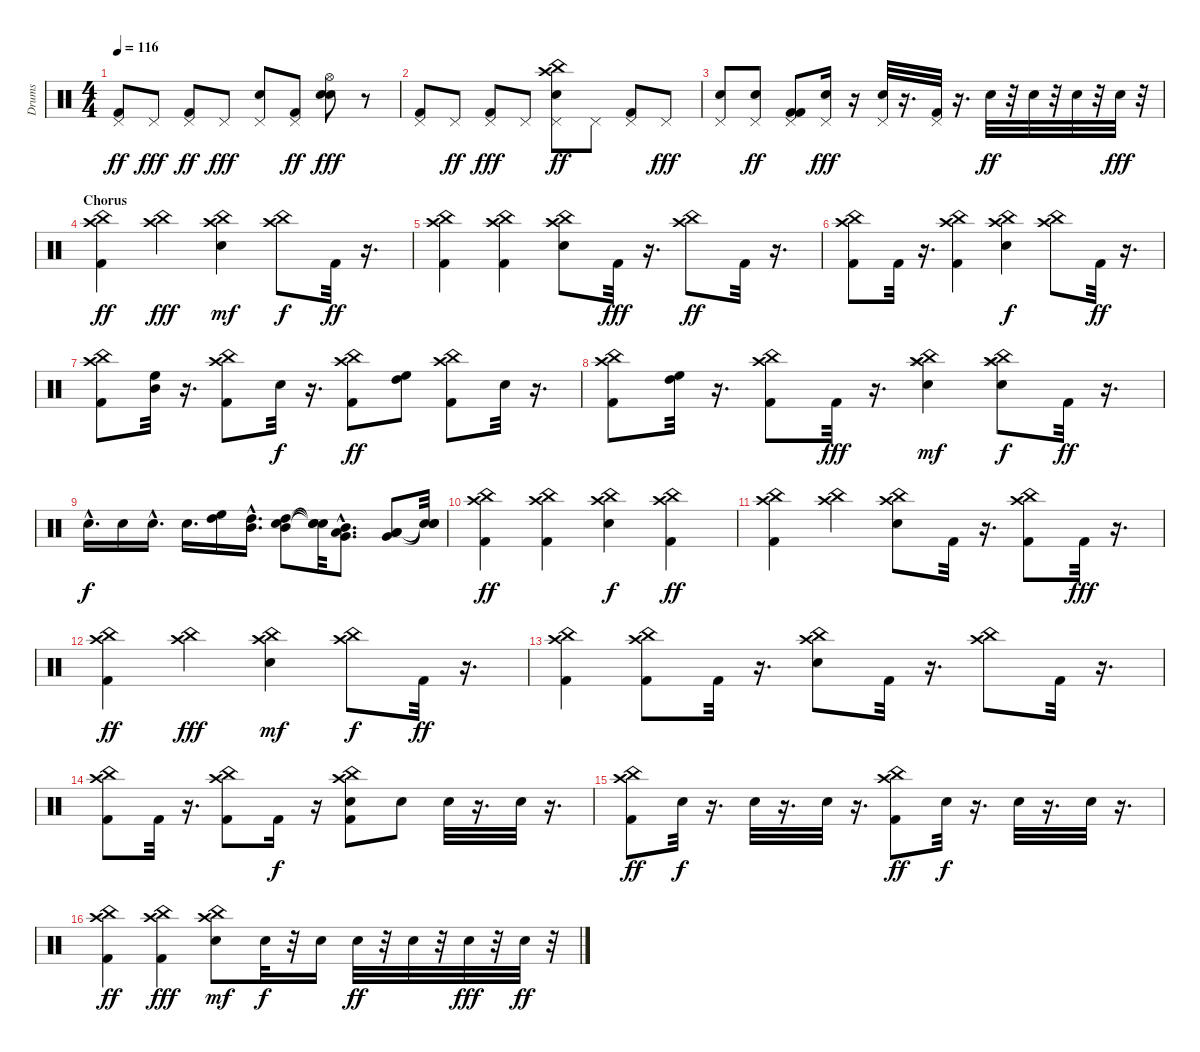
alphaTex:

\track ("Drums" "Drums") {instrument percussion}
\staff {score}
\articulation defaults
\ts (4 4)
\tempo 116
\clef neutral
\ks c
("Kick (hit) 2" "Pedal Hi-Hat (hit)").8{dy ff} "Pedal Hi-Hat (hit)".8{dy fff} ("Kick (hit) 2" "Pedal Hi-Hat (hit)").8{dy ff} "Pedal Hi-Hat (hit)".8{dy fff} ("Snare (hit) 2" "Pedal Hi-Hat (hit)").8 ("Kick (hit) 2" "Pedal Hi-Hat (hit)").8{dy ff} ("Snare (hit) 2" "Snare (hit) 2" "Hi-Hat (open)").8{dy fff} r.8 |
("Kick (hit) 2" "Pedal Hi-Hat (hit)").8 "Pedal Hi-Hat (hit)".8{dy ff} ("Kick (hit) 2" "Pedal Hi-Hat (hit)").8{dy fff} "Pedal Hi-Hat (hit)".8 ("China (hit)" "Crash high (hit)" "Snare (hit) 2" "Pedal Hi-Hat (hit)").8{dy ff} "Pedal Hi-Hat (hit)".8 ("Kick (hit) 2" "Pedal Hi-Hat (hit)").8 "Pedal Hi-Hat (hit)".8{dy fff} |
("Snare (hit) 2" "Pedal Hi-Hat (hit)").8 ("Snare (hit) 2" "Pedal Hi-Hat (hit)").8{dy ff} ("Kick (hit) 2" "Kick (hit) 2" "Pedal Hi-Hat (hit)").8 ("Snare (hit) 2" "Pedal Hi-Hat (hit)").16{dy fff} r.16 ("Snare (hit) 2" "Pedal Hi-Hat (hit)").32 r.16{d} ("Kick (hit) 2" "Pedal Hi-Hat (hit)").32 r.16{d} "Snare (hit) 2".32{dy ff} r.32 "Snare (hit) 2".32 r.32 "Snare (hit) 2".32 r.32 "Snare (hit) 2".32{dy fff} r.32 |
\section ("" "Chorus")
("China (hit)" "Kick (hit) 2" "Crash high (hit)").4{dy ff} ("China (hit)" "Crash high (hit)").4{dy fff} ("Snare (hit) 2" "Crash high (hit)" "China (hit)").4{dy mf} ("Crash high (hit)" "China (hit)").8{dy f} "Kick (hit) 2".32{dy ff} r.16{d} |
("Kick (hit) 2" "Crash high (hit)" "China (hit)").4 ("Kick (hit) 2" "Crash high (hit)" "China (hit)").4 ("Crash high (hit)" "China (hit)" "Snare (hit) 2").8 "Kick (hit) 2".32{dy fff} r.16{d} ("Crash high (hit)" "China (hit)").8{dy ff} "Kick (hit) 2".32 r.16{d} |
("Kick (hit) 2" "China (hit)" "Crash high (hit)").8 "Kick (hit) 2".32 r.16{d} ("Kick (hit) 2" "Crash high (hit)" "China (hit)").4 ("Snare (hit) 2" "China (hit)" "Crash high (hit)").4{dy f} ("Crash high (hit)" "China (hit)").8 "Kick (hit) 2".32{dy ff} r.16{d} |
("Kick (hit) 2" "Crash high (hit)" "China (hit)").8 ("High Floor Tom (hit)" "Mid Tom (hit)").32 r.16{d} ("Kick (hit) 2" "Crash high (hit)" "China (hit)").8 "Snare (hit) 2".32{dy f} r.16{d} ("Kick (hit) 2" "Crash high (hit)" "China (hit)").8{dy ff} ("High Floor Tom (hit)" "High Tom (hit)").8 ("Kick (hit) 2" "China (hit)" "Crash high (hit)").8 "Snare (hit) 2".32 r.16{d} |
("China (hit)" "Kick (hit) 2" "Crash high (hit)").8 ("High Tom (hit)" "High Floor Tom (hit)").32 r.16{d} ("China (hit)" "Crash high (hit)" "Kick (hit) 2").8 "Kick (hit) 2".32{dy fff} r.16{d} ("Splash (hit)" "Snare (hit) 2" "Crash high (hit)" "China (hit)").4{dy mf} ("Splash (hit)" "Snare (hit) 2" "Crash high (hit)" "China (hit)").8{dy f} "Kick (hit) 2".32{dy ff} r.16{d} |
"Snare (hit) 2"{hac}.16{d dy f} "Snare (hit) 2".16 "Snare (hit) 2"{hac}.16{d} "Snare (hit) 2".16{d} ("High Floor Tom (hit)" "High Tom (hit)").16 ("High Tom (hit)"{hac} "Mid Tom (hit)"{hac}).16{d} ("Mid Tom (hit)" "High Tom (hit)" "Snare (hit) 2").8 ("Snare (hit)"{t} "Snare (hit)"{t} "Snare (hit)"{t}).32 ("Very Low Tom (hit)"{hac} "Low Tom (hit)"{hac} "Mid Tom (hit)").8{d} ("Low Floor Tom (hit)" "Very Low Tom (hit)" "Low Tom (hit)").8 ("Snare (hit)"{t} "Snare (hit)"{t} "Snare (hit)"{t}).32 |
("Kick (hit) 2" "China (hit)" "Crash high (hit)").4{dy ff} ("Kick (hit) 2" "Crash high (hit)" "China (hit)").4 ("Snare (hit) 2" "China (hit)" "Crash high (hit)").4{dy f} ("Kick (hit) 2" "Crash high (hit)" "China (hit)").4{dy ff} |
("Kick (hit) 2" "Crash high (hit)" "China (hit)").4 ("Crash high (hit)" "China (hit)").4 ("Crash high (hit)" "China (hit)" "Snare (hit) 2").8 "Kick (hit) 2".32 r.16{d} ("Kick (hit) 2" "China (hit)" "Crash high (hit)").8 "Kick (hit) 2".32{dy fff} r.16{d} |
("China (hit)" "Kick (hit) 2" "Crash high (hit)").4{dy ff} ("China (hit)" "Crash high (hit)").4{dy fff} ("Snare (hit) 2" "Crash high (hit)" "China (hit)").4{dy mf} ("Crash high (hit)" "China (hit)").8{dy f} "Kick (hit) 2".32{dy ff} r.16{d} |
("Kick (hit) 2" "Crash high (hit)" "China (hit)").4 ("Kick (hit) 2" "Crash high (hit)" "China (hit)").8 "Kick (hit) 2".32 r.16{d} ("Crash high (hit)" "China (hit)" "Snare (hit) 2").8 "Kick (hit) 2".32 r.16{d} ("Crash high (hit)" "China (hit)").8 "Kick (hit) 2".32 r.16{d} |
("Kick (hit) 2" "China (hit)" "Crash high (hit)").8 "Kick (hit) 2".32 r.16{d} ("Kick (hit) 2" "Crash high (hit)" "China (hit)").8 "Kick (hit) 2".16{dy f} r.16 ("Kick (hit) 2" "Snare (hit) 2" "China (hit)" "Crash high (hit)").8 "Snare (hit) 2".8 "Snare (hit) 2".32 r.16{d} "Snare (hit) 2".32 r.16{d} |
("Kick (hit) 2" "Crash high (hit)" "China (hit)").8{dy ff} "Snare (hit) 2".32{dy f} r.16{d} "Snare (hit) 2".32 r.16{d} "Snare (hit) 2".32 r.16{d} ("China (hit)" "Crash high (hit)" "Kick (hit) 2").8{dy ff} "Snare (hit) 2".32{dy f} r.16{d} "Snare (hit) 2".32 r.16{d} "Snare (hit) 2".32 r.16{d} |
("Kick (hit) 2" "China (hit)" "Crash high (hit)").4{dy ff} ("China (hit)" "Kick (hit) 2" "Crash high (hit)").4{dy fff} ("Snare (hit) 2" "Crash high (hit)" "China (hit)").8{dy mf} "Snare (hit) 2".32{dy f} r.32 "Snare (hit) 2".16 "Snare (hit) 2".32{dy ff} r.32 "Snare (hit) 2".32 r.32 "Snare (hit) 2".32{dy fff} r.32 "Snare (hit) 2".32{dy ff} r.32
